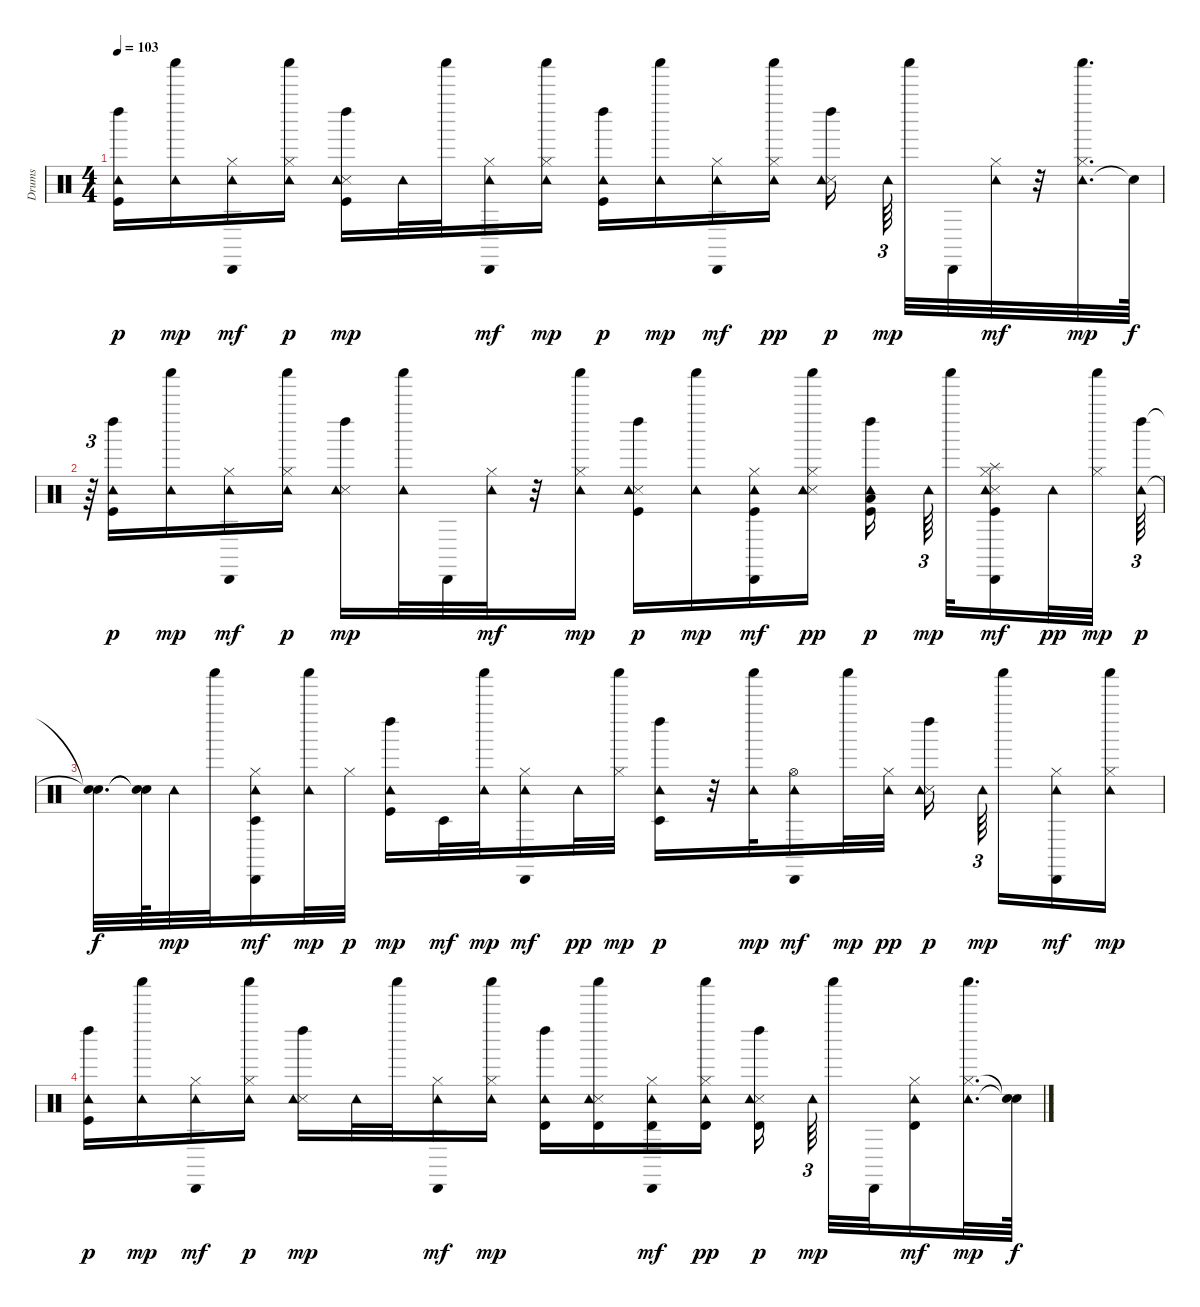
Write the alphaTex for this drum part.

\track ("Drums" "Drums") {instrument percussion}
\staff {score}
\articulation defaults
\ts (4 4)
\tempo 103
\clef neutral
\ks c
("Left Maraca (hit)" "Kick (hit)" "Tambourine (hit)").16{dy p} ("Tambourine (hit)" "Shaker (hit)").16{dy mp} ("Cabasa (hit)" "Hi-Hat (closed)" "Tambourine (hit)").16{dy mf} ("Tambourine (hit)" "Shaker (hit)" "Hi-Hat (closed)").16{dy p} ("Left Maraca (hit)" "Kick (hit)" "Snare (side stick) 3" "Tambourine (hit)").16{dy mp} "Tambourine (hit)".32 "Shaker (hit)".32 ("Cabasa (hit)" "Hi-Hat (closed)" "Tambourine (hit)").16{dy mf} ("Tambourine (hit)" "Hi-Hat (closed)" "Shaker (hit)").16{dy mp} ("Left Maraca (hit)" "Kick (hit)" "Tambourine (hit)").16{dy p} ("Tambourine (hit)" "Shaker (hit)").16{dy mp} ("Cabasa (hit)" "Hi-Hat (closed)" "Tambourine (hit)").16{dy mf} ("Shaker (hit)" "Hi-Hat (closed)" "Tambourine (hit)").16{dy pp} ("Left Maraca (hit)" "Snare (side stick) 3" "Tambourine (hit)").16{dy p beam splitsecondary} "Tambourine (hit)".64{tu (3 2) dy mp beam splitsecondary} "Shaker (hit)".32 "Cabasa (hit)".32 ("Hi-Hat (closed)" "Tambourine (hit)").32{dy mf} r.32 ("Tambourine (hit)" "Hi-Hat (closed)" "Shaker (hit)").32{d dy mp} "Snare (hit)"{t}.64{dy f} |
r.64{tu (3 2)} ("Left Maraca (hit)" "Kick (hit)" "Tambourine (hit)").16{dy p} ("Tambourine (hit)" "Shaker (hit)").16{dy mp} ("Cabasa (hit)" "Hi-Hat (closed)" "Tambourine (hit)").16{dy mf} ("Tambourine (hit)" "Shaker (hit)" "Hi-Hat (closed)").16{dy p} ("Left Maraca (hit)" "Snare (side stick) 3" "Tambourine (hit)").16{dy mp} ("Tambourine (hit)" "Shaker (hit)").32 "Cabasa (hit)".32 ("Hi-Hat (closed)" "Tambourine (hit)").32{dy mf} r.32 ("Tambourine (hit)" "Hi-Hat (closed)" "Shaker (hit)").16{dy mp} ("Left Maraca (hit)" "Kick (hit)" "Snare (side stick) 3" "Tambourine (hit)").16{dy p} ("Tambourine (hit)" "Shaker (hit)").16{dy mp} ("Cabasa (hit)" "Kick (hit)" "Hi-Hat (closed)" "Tambourine (hit)").16{dy mf} ("Shaker (hit)" "Snare (side stick) 3" "Hi-Hat (closed)" "Tambourine (hit)").16{dy pp} ("Low Tom (hit)" "Left Maraca (hit)" "Kick (hit)" "Tambourine (hit)").16{dy p beam splitsecondary} "Tambourine (hit)".64{tu (3 2) dy mp beam splitsecondary} "Shaker (hit)".32 ("Cabasa (hit)" "Splash (hit)" "Kick (hit)" "Snare (side stick) 3" "Hi-Hat (closed)" "Tambourine (hit)").16{dy mf} "Tambourine (hit)".32{dy pp} ("Hi-Hat (closed)" "Shaker (hit)").32{dy mp beam splitsecondary} ("Left Maraca (hit)" "Tambourine (hit)").64{tu (3 2) dy p} |
("Snare (hit)"{t} "Snare (hit)"{t}).32{d dy f} ("Snare (hit)"{t} "Snare (hit)"{t}).64 "Tambourine (hit)".32{dy mp} "Shaker (hit)".32 ("Cabasa (hit)" "Hi-Hat (closed)" "Timbale low (hit)" "Tambourine (hit)").16{dy mf} ("Tambourine (hit)" "Shaker (hit)").32{dy mp} "Hi-Hat (closed)".32{dy p} ("Left Maraca (hit)" "Kick (hit)" "Tambourine (hit)").16{dy mp} "Timbale low (hit)".32{dy mf} ("Tambourine (hit)" "Shaker (hit)").32{dy mp} ("Cabasa (hit)" "Hi-Hat (closed)" "Tambourine (hit)").16{dy mf} "Tambourine (hit)".32{dy pp} ("Hi-Hat (closed)" "Shaker (hit)").32{dy mp} ("Left Maraca (hit)" "Timbale low (hit)" "Tambourine (hit)").16{dy p} r.32 ("Tambourine (hit)" "Shaker (hit)").32{dy mp} ("Cabasa (hit)" "Hi-Hat (open)" "Tambourine (hit)").16{dy mf} "Shaker (hit)".32{dy mp} ("Hi-Hat (closed)" "Tambourine (hit)").32{dy pp} ("Left Maraca (hit)" "Snare (side stick) 3" "Tambourine (hit)").16{dy p beam splitsecondary} "Tambourine (hit)".64{tu (3 2) dy mp beam splitsecondary} "Shaker (hit)".16 ("Cabasa (hit)" "Hi-Hat (closed)" "Tambourine (hit)").16{dy mf} ("Tambourine (hit)" "Hi-Hat (closed)" "Shaker (hit)").16{dy mp} |
("Left Maraca (hit)" "Kick (hit)" "Tambourine (hit)").16{dy p} ("Tambourine (hit)" "Shaker (hit)").16{dy mp} ("Cabasa (hit)" "Hi-Hat (closed)" "Tambourine (hit)").16{dy mf} ("Tambourine (hit)" "Shaker (hit)" "Hi-Hat (closed)").16{dy p} ("Left Maraca (hit)" "Snare (side stick) 3" "Tambourine (hit)").16{dy mp} "Tambourine (hit)".32 "Shaker (hit)".32 ("Cabasa (hit)" "Hi-Hat (closed)" "Tambourine (hit)").16{dy mf} ("Tambourine (hit)" "Hi-Hat (closed)" "Shaker (hit)").16{dy mp} ("Left Maraca (hit)" "Tambourine (hit)" "Timbale high (hit)").16 ("Timbale high (hit)" "Snare (side stick) 3" "Tambourine (hit)" "Shaker (hit)").16 ("Cabasa (hit)" "Timbale high (hit)" "Hi-Hat (closed)" "Tambourine (hit)").16{dy mf} ("Timbale high (hit)" "Shaker (hit)" "Hi-Hat (closed)" "Tambourine (hit)").16{dy pp} ("Timbale high (hit)" "Left Maraca (hit)" "Snare (side stick) 3" "Tambourine (hit)").16{dy p beam splitsecondary} "Tambourine (hit)".64{tu (3 2) dy mp beam splitsecondary} "Shaker (hit)".32 "Cabasa (hit)".32 ("Timbale high (hit)" "Hi-Hat (closed)" "Tambourine (hit)").16{dy mf} ("Tambourine (hit)" "Hi-Hat (closed)" "Shaker (hit)").32{d dy mp} ("Snare (hit)"{t} "Snare (hit)"{t}).64{dy f}
